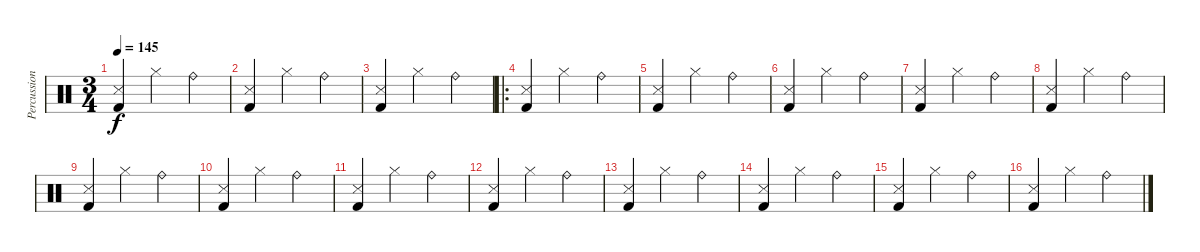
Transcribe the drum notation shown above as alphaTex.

\track ("Percussion" "Percussion") {instrument percussion}
\staff {score}
\articulation defaults
\ts (3 4)
\tempo 145
\clef neutral
\ks c
("Kick (hit) 2" "Snare (side stick) 3").4{dy f} "Hi-Hat (closed)".4 "Ride (bell)".4 |
("Kick (hit) 2" "Snare (side stick) 3").4 "Hi-Hat (closed)".4 "Ride (bell)".4 |
("Kick (hit) 2" "Snare (side stick) 3").4 "Hi-Hat (closed)".4 "Ride (bell)".4 |
\ro
("Kick (hit) 2" "Snare (side stick) 3").4 "Hi-Hat (closed)".4 "Ride (bell)".4 |
("Kick (hit) 2" "Snare (side stick) 3").4 "Hi-Hat (closed)".4 "Ride (bell)".4 |
("Kick (hit) 2" "Snare (side stick) 3").4 "Hi-Hat (closed)".4 "Ride (bell)".4 |
("Kick (hit) 2" "Snare (side stick) 3").4 "Hi-Hat (closed)".4 "Ride (bell)".4 |
("Kick (hit) 2" "Snare (side stick) 3").4 "Hi-Hat (closed)".4 "Ride (bell)".4 |
("Kick (hit) 2" "Snare (side stick) 3").4 "Hi-Hat (closed)".4 "Ride (bell)".4 |
("Kick (hit) 2" "Snare (side stick) 3").4 "Hi-Hat (closed)".4 "Ride (bell)".4 |
("Kick (hit) 2" "Snare (side stick) 3").4 "Hi-Hat (closed)".4 "Ride (bell)".4 |
("Kick (hit) 2" "Snare (side stick) 3").4 "Hi-Hat (closed)".4 "Ride (bell)".4 |
("Kick (hit) 2" "Snare (side stick) 3").4 "Hi-Hat (closed)".4 "Ride (bell)".4 |
("Kick (hit) 2" "Snare (side stick) 3").4 "Hi-Hat (closed)".4 "Ride (bell)".4 |
("Kick (hit) 2" "Snare (side stick) 3").4 "Hi-Hat (closed)".4 "Ride (bell)".4 |
("Kick (hit) 2" "Snare (side stick) 3").4 "Hi-Hat (closed)".4 "Ride (bell)".4
